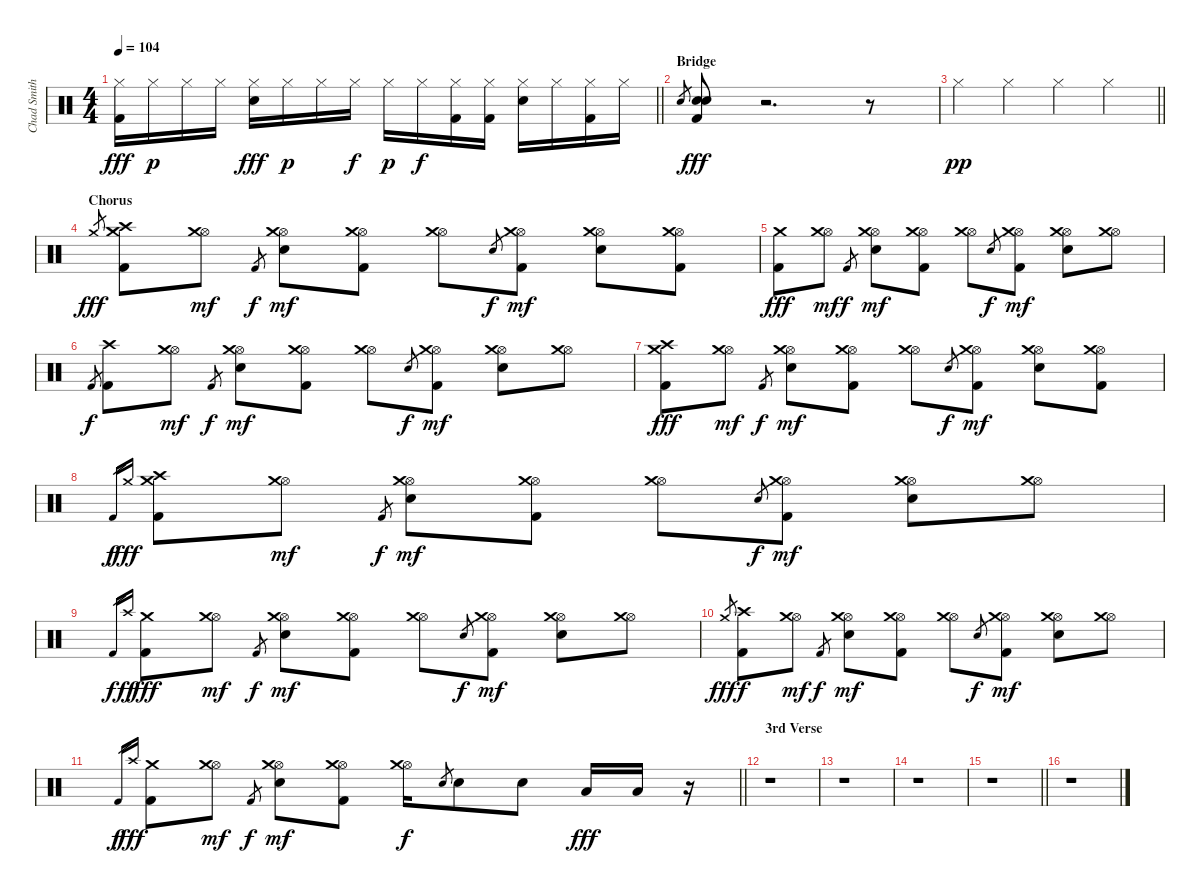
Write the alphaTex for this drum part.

\track ("Chad Smith" "Chad Smith") {instrument percussion}
\staff {score}
\articulation defaults
\ts (4 4)
\tempo 104
\clef neutral
\barLineRight lightlight
\ks c
("Hi-Hat (closed)" "Kick (hit) 2").16{dy fff} "Hi-Hat (closed)".16{dy p} "Hi-Hat (closed)".16 "Hi-Hat (closed)".16 ("Hi-Hat (closed)" "Electric Snare (hit)").16{dy fff} "Hi-Hat (closed)".16{dy p} "Hi-Hat (closed)".16 "Hi-Hat (closed)".16{dy f} "Hi-Hat (closed)".16{dy p} "Hi-Hat (closed)".16{dy f} ("Hi-Hat (closed)" "Kick (hit) 2").16 ("Hi-Hat (closed)" "Kick (hit) 2").16 ("Hi-Hat (closed)" "Electric Snare (hit)").16 "Hi-Hat (closed)".16 ("Hi-Hat (closed)" "Kick (hit) 2").16 "Hi-Hat (closed)".16 |
\section ("" "Bridge")
"Electric Snare (hit)".8{gr} ("Kick (hit) 2" "Electric Snare (hit)" "Electric Snare (hit)").8{dy fff} r.2{d} r.8 |
\barLineRight lightlight "Hi-Hat (closed)".4{dy pp} "Hi-Hat (closed)".4 "Hi-Hat (closed)".4 "Hi-Hat (closed)".4
|
\section ("" "Chorus")
"Crash medium (hit)".8{gr dy fff} ("Kick (hit) 2" "Crash medium (hit)" "Crash high (hit)").8 ("Hi-Hat (open)" "Crash medium (hit)").8{dy mf} "Kick (hit) 2".8{gr dy f} ("Hi-Hat (open)" "Electric Snare (hit)" "Crash medium (hit)").8{dy mf} ("Hi-Hat (open)" "Kick (hit) 2" "Crash medium (hit)").8 ("Hi-Hat (open)" "Crash medium (hit)").8 "Electric Snare (hit)".8{gr dy f} ("Hi-Hat (open)" "Kick (hit) 2" "Crash medium (hit)").8{dy mf} ("Hi-Hat (open)" "Electric Snare (hit)" "Crash medium (hit)").8 ("Hi-Hat (open)" "Kick (hit) 2" "Crash medium (hit)").8 |
("Kick (hit) 2" "Crash medium (hit)").8{dy fff} ("Hi-Hat (open)" "Crash medium (hit)").8{dy mf} "Kick (hit) 2".8{gr dy f} ("Hi-Hat (open)" "Electric Snare (hit)" "Crash medium (hit)").8{dy mf} ("Hi-Hat (open)" "Kick (hit) 2" "Crash medium (hit)").8 ("Hi-Hat (open)" "Crash medium (hit)").8 "Electric Snare (hit)".8{gr dy f} ("Hi-Hat (open)" "Kick (hit) 2" "Crash medium (hit)").8{dy mf} ("Hi-Hat (open)" "Electric Snare (hit)" "Crash medium (hit)").8 ("Hi-Hat (open)" "Crash medium (hit)").8 |
"Kick (hit) 2".8{gr dy f} ("Kick (hit) 2" "Crash high (hit)").8 ("Hi-Hat (open)" "Crash medium (hit)").8{dy mf} "Kick (hit) 2".8{gr dy f} ("Hi-Hat (open)" "Electric Snare (hit)" "Crash medium (hit)").8{dy mf} ("Hi-Hat (open)" "Kick (hit) 2" "Crash medium (hit)").8 ("Hi-Hat (open)" "Crash medium (hit)").8 "Electric Snare (hit)".8{gr dy f} ("Hi-Hat (open)" "Kick (hit) 2" "Crash medium (hit)").8{dy mf} ("Hi-Hat (open)" "Electric Snare (hit)" "Crash medium (hit)").8 ("Hi-Hat (open)" "Crash medium (hit)").8 |
("Kick (hit) 2" "Crash medium (hit)" "Crash high (hit)").8{dy fff} ("Hi-Hat (open)" "Crash medium (hit)").8{dy mf} "Kick (hit) 2".8{gr dy f} ("Hi-Hat (open)" "Electric Snare (hit)" "Crash medium (hit)").8{dy mf} ("Hi-Hat (open)" "Kick (hit) 2" "Crash medium (hit)").8 ("Hi-Hat (open)" "Crash medium (hit)").8 "Electric Snare (hit)".8{gr dy f} ("Hi-Hat (open)" "Kick (hit) 2" "Crash medium (hit)").8{dy mf} ("Hi-Hat (open)" "Electric Snare (hit)" "Crash medium (hit)").8 ("Hi-Hat (open)" "Kick (hit) 2" "Crash medium (hit)").8 |
"Kick (hit) 2".16{gr dy f} "Crash medium (hit)".16{gr dy fff} ("Kick (hit) 2" "Crash medium (hit)" "Crash high (hit)").8 ("Hi-Hat (open)" "Crash medium (hit)").8{dy mf} "Kick (hit) 2".8{gr dy f} ("Hi-Hat (open)" "Electric Snare (hit)" "Crash medium (hit)").8{dy mf} ("Hi-Hat (open)" "Kick (hit) 2" "Crash medium (hit)").8 ("Hi-Hat (open)" "Crash medium (hit)").8 "Electric Snare (hit)".8{gr dy f} ("Hi-Hat (open)" "Kick (hit) 2" "Crash medium (hit)").8{dy mf} ("Hi-Hat (open)" "Electric Snare (hit)" "Crash medium (hit)").8 ("Hi-Hat (open)" "Crash medium (hit)").8 |
"Kick (hit) 2".16{gr dy f} "Crash high (hit)".16{gr dy ff} ("Kick (hit) 2" "Crash medium (hit)").8{dy fff} ("Hi-Hat (open)" "Crash medium (hit)").8{dy mf} "Kick (hit) 2".8{gr dy f} ("Hi-Hat (open)" "Electric Snare (hit)" "Crash medium (hit)").8{dy mf} ("Hi-Hat (open)" "Kick (hit) 2" "Crash medium (hit)").8 ("Hi-Hat (open)" "Crash medium (hit)").8 "Electric Snare (hit)".8{gr dy f} ("Hi-Hat (open)" "Kick (hit) 2" "Crash medium (hit)").8{dy mf} ("Hi-Hat (open)" "Electric Snare (hit)" "Crash medium (hit)").8 ("Hi-Hat (open)" "Crash medium (hit)").8 |
"Crash medium (hit)".8{gr dy fff} ("Kick (hit) 2" "Crash high (hit)").8{dy f} ("Hi-Hat (open)" "Crash medium (hit)").8{dy mf} "Kick (hit) 2".8{gr dy f} ("Hi-Hat (open)" "Electric Snare (hit)" "Crash medium (hit)").8{dy mf} ("Hi-Hat (open)" "Kick (hit) 2" "Crash medium (hit)").8 ("Hi-Hat (open)" "Crash medium (hit)").8 "Electric Snare (hit)".8{gr dy f} ("Hi-Hat (open)" "Kick (hit) 2" "Crash medium (hit)").8{dy mf} ("Hi-Hat (open)" "Electric Snare (hit)" "Crash medium (hit)").8 ("Hi-Hat (open)" "Crash medium (hit)").8 |
\barLineRight lightlight "Kick (hit) 2".16{gr dy f} "Crash high (hit)".16{gr dy fff}
("Kick (hit) 2" "Crash medium (hit)").8 ("Hi-Hat (open)" "Crash medium (hit)").8{dy mf} "Kick (hit) 2".8{gr dy f} ("Hi-Hat (open)" "Electric Snare (hit)" "Crash medium (hit)").8{dy mf} ("Hi-Hat (open)" "Kick (hit) 2" "Crash medium (hit)").8 ("Hi-Hat (open)" "Crash medium (hit)").16{dy f} "Electric Snare (hit)".8{gr} "Electric Snare (hit)".8 "Electric Snare (hit)".8 "Low Tom (hit)".16{dy fff} "Low Tom (hit)".16 r.16 |
\section ("" "3rd Verse")
r.1 |
r.1 |
r.1 |
\barLineRight lightlight
r.1 |
r.1
